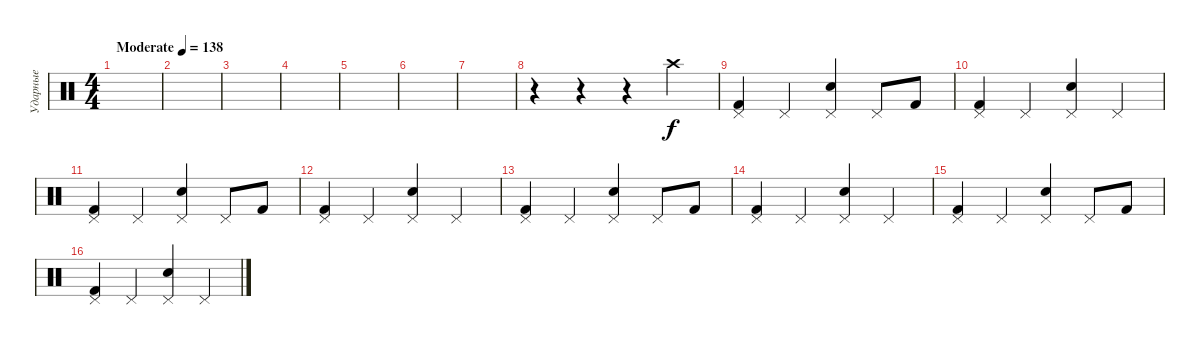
\track ("Ударные" "Ударные") {instrument percussion}
\staff {score}
\articulation defaults
\ts (4 4)
\tempo (138 "Moderate")
\clef neutral
\ks c
|
|
|
|
|
|
|
r.4 r.4 r.4 "Crash high (hit)".4 |
("Kick (hit) 2" "Pedal Hi-Hat (hit)").4 "Pedal Hi-Hat (hit)".4 ("Electric Snare (hit)" "Pedal Hi-Hat (hit)").4 "Pedal Hi-Hat (hit)".8 "Kick (hit) 2".8 |
("Kick (hit) 2" "Pedal Hi-Hat (hit)").4 "Pedal Hi-Hat (hit)".4 ("Electric Snare (hit)" "Pedal Hi-Hat (hit)").4 "Pedal Hi-Hat (hit)".4 |
("Kick (hit) 2" "Pedal Hi-Hat (hit)").4 "Pedal Hi-Hat (hit)".4 ("Electric Snare (hit)" "Pedal Hi-Hat (hit)").4 "Pedal Hi-Hat (hit)".8 "Kick (hit) 2".8 |
("Kick (hit) 2" "Pedal Hi-Hat (hit)").4 "Pedal Hi-Hat (hit)".4 ("Electric Snare (hit)" "Pedal Hi-Hat (hit)").4 "Pedal Hi-Hat (hit)".4 |
("Kick (hit) 2" "Pedal Hi-Hat (hit)").4 "Pedal Hi-Hat (hit)".4 ("Electric Snare (hit)" "Pedal Hi-Hat (hit)").4 "Pedal Hi-Hat (hit)".8 "Kick (hit) 2".8 |
("Kick (hit) 2" "Pedal Hi-Hat (hit)").4 "Pedal Hi-Hat (hit)".4 ("Electric Snare (hit)" "Pedal Hi-Hat (hit)").4 "Pedal Hi-Hat (hit)".4 |
("Kick (hit) 2" "Pedal Hi-Hat (hit)").4 "Pedal Hi-Hat (hit)".4 ("Electric Snare (hit)" "Pedal Hi-Hat (hit)").4 "Pedal Hi-Hat (hit)".8 "Kick (hit) 2".8 |
("Kick (hit) 2" "Pedal Hi-Hat (hit)").4 "Pedal Hi-Hat (hit)".4 ("Electric Snare (hit)" "Pedal Hi-Hat (hit)").4 "Pedal Hi-Hat (hit)".4
